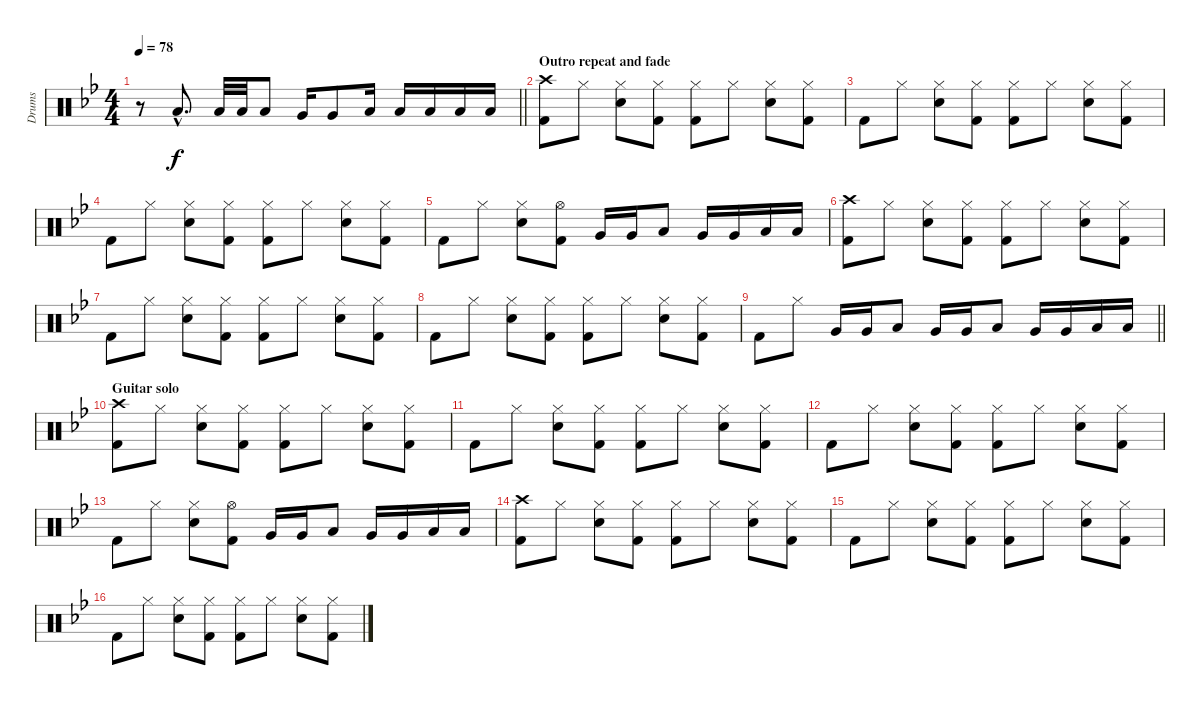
\track ("Drums" "Drums") {instrument percussion}
\staff {score}
\articulation defaults
\ts (4 4)
\tempo 78
\clef neutral
\barLineRight lightlight
\ks bb
r.8{dy mp} "Low Tom (hit)"{hac}.8{d dy f} "Low Tom (hit)".32 "Low Tom (hit)".32 "Low Tom (hit)".8 "Very Low Tom (hit)".16 "Very Low Tom (hit)".8 "Low Floor Tom (hit)".16 "Low Floor Tom (hit)".16 "Low Floor Tom (hit)".16 "Low Floor Tom (hit)".16 "Low Floor Tom (hit)".16 |
\section ("" "Outro repeat and fade")
("Crash high (hit)" "Kick (hit) 2").8 "Hi-Hat (closed)".8 ("Hi-Hat (closed)" "Snare (hit) 2").8 ("Hi-Hat (closed)" "Kick (hit) 2").8 ("Hi-Hat (closed)" "Kick (hit) 2").8 "Hi-Hat (closed)".8 ("Hi-Hat (closed)" "Snare (hit) 2").8 ("Hi-Hat (closed)" "Kick (hit) 2").8 |
"Kick (hit) 2".8 "Hi-Hat (closed)".8 ("Hi-Hat (closed)" "Snare (hit) 2").8 ("Hi-Hat (closed)" "Kick (hit) 2").8 ("Hi-Hat (closed)" "Kick (hit) 2").8 "Hi-Hat (closed)".8 ("Hi-Hat (closed)" "Snare (hit) 2").8 ("Hi-Hat (closed)" "Kick (hit) 2").8 |
"Kick (hit) 2".8 "Hi-Hat (closed)".8 ("Hi-Hat (closed)" "Snare (hit) 2").8 ("Hi-Hat (closed)" "Kick (hit) 2").8 ("Hi-Hat (closed)" "Kick (hit) 2").8 "Hi-Hat (closed)".8 ("Hi-Hat (closed)" "Snare (hit) 2").8 ("Hi-Hat (closed)" "Kick (hit) 2").8 |
"Kick (hit) 2".8 "Hi-Hat (closed)".8 ("Hi-Hat (closed)" "Snare (hit) 2").8 ("Hi-Hat (open)" "Kick (hit) 2").8 "Very Low Tom (hit)".16 "Very Low Tom (hit)".16 "Low Floor Tom (hit)".8 "Very Low Tom (hit)".16 "Very Low Tom (hit)".16 "Low Floor Tom (hit)".16 "Low Floor Tom (hit)".16 |
("Crash high (hit)" "Kick (hit) 2").8 "Hi-Hat (closed)".8 ("Hi-Hat (closed)" "Snare (hit) 2").8 ("Hi-Hat (closed)" "Kick (hit) 2").8 ("Hi-Hat (closed)" "Kick (hit) 2").8 "Hi-Hat (closed)".8 ("Hi-Hat (closed)" "Snare (hit) 2").8 ("Hi-Hat (closed)" "Kick (hit) 2").8 |
"Kick (hit) 2".8 "Hi-Hat (closed)".8 ("Hi-Hat (closed)" "Snare (hit) 2").8 ("Hi-Hat (closed)" "Kick (hit) 2").8 ("Hi-Hat (closed)" "Kick (hit) 2").8 "Hi-Hat (closed)".8 ("Hi-Hat (closed)" "Snare (hit) 2").8 ("Hi-Hat (closed)" "Kick (hit) 2").8 |
"Kick (hit) 2".8 "Hi-Hat (closed)".8 ("Hi-Hat (closed)" "Snare (hit) 2").8 ("Hi-Hat (closed)" "Kick (hit) 2").8 ("Hi-Hat (closed)" "Kick (hit) 2").8 "Hi-Hat (closed)".8 ("Hi-Hat (closed)" "Snare (hit) 2").8 ("Hi-Hat (closed)" "Kick (hit) 2").8 |
\barLineRight lightlight "Kick (hit) 2".8 "Hi-Hat (closed)".8 "Very Low Tom (hit)".16 "Very Low Tom (hit)".16 "Low Floor Tom (hit)".8 "Very Low Tom (hit)".16 "Very Low Tom (hit)".16 "Low Floor Tom (hit)".8 "Very Low Tom (hit)".16 "Very Low Tom (hit)".16 "Low Floor Tom (hit)".16 "Low Floor Tom (hit)".16
|
\section ("" "Guitar solo")
("Crash high (hit)" "Kick (hit) 2").8 "Hi-Hat (closed)".8 ("Hi-Hat (closed)" "Snare (hit) 2").8 ("Hi-Hat (closed)" "Kick (hit) 2").8 ("Hi-Hat (closed)" "Kick (hit) 2").8 "Hi-Hat (closed)".8 ("Hi-Hat (closed)" "Snare (hit) 2").8 ("Hi-Hat (closed)" "Kick (hit) 2").8 |
"Kick (hit) 2".8 "Hi-Hat (closed)".8 ("Hi-Hat (closed)" "Snare (hit) 2").8 ("Hi-Hat (closed)" "Kick (hit) 2").8 ("Hi-Hat (closed)" "Kick (hit) 2").8 "Hi-Hat (closed)".8 ("Hi-Hat (closed)" "Snare (hit) 2").8 ("Hi-Hat (closed)" "Kick (hit) 2").8 |
"Kick (hit) 2".8 "Hi-Hat (closed)".8 ("Hi-Hat (closed)" "Snare (hit) 2").8 ("Hi-Hat (closed)" "Kick (hit) 2").8 ("Hi-Hat (closed)" "Kick (hit) 2").8 "Hi-Hat (closed)".8 ("Hi-Hat (closed)" "Snare (hit) 2").8 ("Hi-Hat (closed)" "Kick (hit) 2").8 |
"Kick (hit) 2".8 "Hi-Hat (closed)".8 ("Hi-Hat (closed)" "Snare (hit) 2").8 ("Hi-Hat (open)" "Kick (hit) 2").8 "Very Low Tom (hit)".16 "Very Low Tom (hit)".16 "Low Floor Tom (hit)".8 "Very Low Tom (hit)".16 "Very Low Tom (hit)".16 "Low Floor Tom (hit)".16 "Low Floor Tom (hit)".16 |
("Crash high (hit)" "Kick (hit) 2").8 "Hi-Hat (closed)".8 ("Hi-Hat (closed)" "Snare (hit) 2").8 ("Hi-Hat (closed)" "Kick (hit) 2").8 ("Hi-Hat (closed)" "Kick (hit) 2").8 "Hi-Hat (closed)".8 ("Hi-Hat (closed)" "Snare (hit) 2").8 ("Hi-Hat (closed)" "Kick (hit) 2").8 |
"Kick (hit) 2".8 "Hi-Hat (closed)".8 ("Hi-Hat (closed)" "Snare (hit) 2").8 ("Hi-Hat (closed)" "Kick (hit) 2").8 ("Hi-Hat (closed)" "Kick (hit) 2").8 "Hi-Hat (closed)".8 ("Hi-Hat (closed)" "Snare (hit) 2").8 ("Hi-Hat (closed)" "Kick (hit) 2").8 |
"Kick (hit) 2".8 "Hi-Hat (closed)".8 ("Hi-Hat (closed)" "Snare (hit) 2").8 ("Hi-Hat (closed)" "Kick (hit) 2").8 ("Hi-Hat (closed)" "Kick (hit) 2").8 "Hi-Hat (closed)".8 ("Hi-Hat (closed)" "Snare (hit) 2").8 ("Hi-Hat (closed)" "Kick (hit) 2").8
